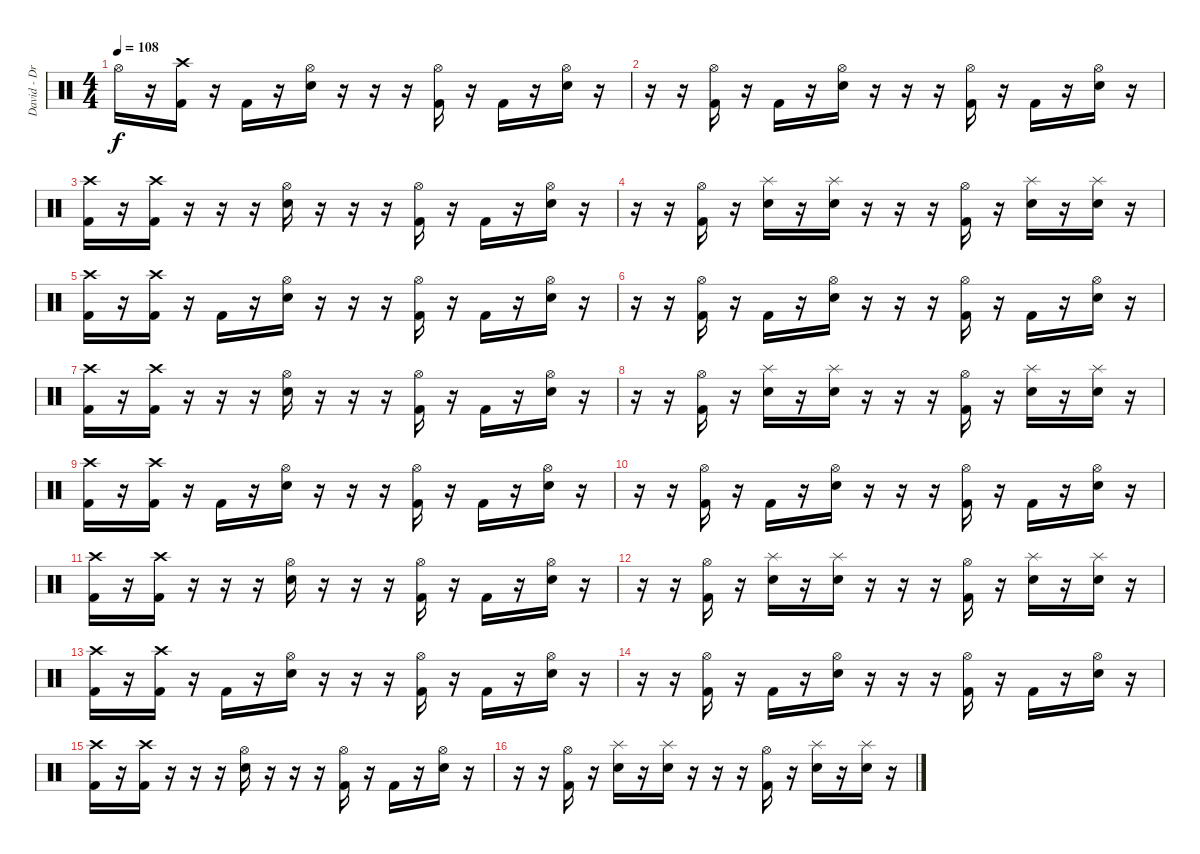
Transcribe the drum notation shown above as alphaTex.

\track ("David - Drums" "David - Dr") {instrument percussion}
\staff {score}
\articulation defaults
\ts (4 4)
\tempo 108
\clef neutral
\ks c "Hi-Hat (open)".16{dy f}
r.16 ("Crash high (hit)" "Kick (hit) 2").16 r.16 "Kick (hit) 2".16 r.16 ("Hi-Hat (open)" "Snare (hit) 2").16 r.16 r.16 r.16 ("Hi-Hat (open)" "Kick (hit) 2").16 r.16 "Kick (hit) 2".16 r.16 ("Hi-Hat (open)" "Snare (hit) 2").16 r.16 |
r.16 r.16 ("Hi-Hat (open)" "Kick (hit) 2").16 r.16 "Kick (hit) 2".16 r.16 ("Hi-Hat (open)" "Snare (hit) 2").16 r.16 r.16 r.16 ("Hi-Hat (open)" "Kick (hit) 2").16 r.16 "Kick (hit) 2".16 r.16 ("Hi-Hat (open)" "Snare (hit) 2").16 r.16 |
("Crash high (hit)" "Kick (hit) 2").16 r.16 ("Crash high (hit)" "Kick (hit) 2").16 r.16 r.16 r.16 ("Hi-Hat (open)" "Snare (hit) 2").16 r.16 r.16 r.16 ("Hi-Hat (open)" "Kick (hit) 2").16 r.16 "Kick (hit) 2".16 r.16 ("Hi-Hat (open)" "Snare (hit) 2").16 r.16 |
r.16 r.16 ("Hi-Hat (open)" "Kick (hit) 2").16 r.16 ("Splash (hit)" "Snare (hit) 2").16 r.16 ("Splash (hit)" "Snare (hit) 2").16 r.16 r.16 r.16 ("Hi-Hat (open)" "Kick (hit) 2").16 r.16 ("Splash (hit)" "Snare (hit) 2").16 r.16 ("Splash (hit)" "Snare (hit) 2").16 r.16 |
("Crash high (hit)" "Kick (hit) 2").16{volume 11} r.16 ("Crash high (hit)" "Kick (hit) 2").16 r.16 "Kick (hit) 2".16 r.16 ("Hi-Hat (open)" "Snare (hit) 2").16 r.16 r.16 r.16 ("Hi-Hat (open)" "Kick (hit) 2").16 r.16 "Kick (hit) 2".16 r.16 ("Hi-Hat (open)" "Snare (hit) 2").16 r.16 |
r.16{volume 10} r.16 ("Hi-Hat (open)" "Kick (hit) 2").16 r.16 "Kick (hit) 2".16 r.16 ("Hi-Hat (open)" "Snare (hit) 2").16 r.16 r.16 r.16 ("Hi-Hat (open)" "Kick (hit) 2").16 r.16 "Kick (hit) 2".16 r.16 ("Hi-Hat (open)" "Snare (hit) 2").16 r.16 |
("Crash high (hit)" "Kick (hit) 2").16{volume 9} r.16 ("Crash high (hit)" "Kick (hit) 2").16 r.16 r.16 r.16 ("Hi-Hat (open)" "Snare (hit) 2").16 r.16 r.16 r.16 ("Hi-Hat (open)" "Kick (hit) 2").16 r.16 "Kick (hit) 2".16 r.16 ("Hi-Hat (open)" "Snare (hit) 2").16 r.16 |
r.16{volume 8} r.16 ("Hi-Hat (open)" "Kick (hit) 2").16 r.16 ("Splash (hit)" "Snare (hit) 2").16 r.16 ("Splash (hit)" "Snare (hit) 2").16 r.16 r.16 r.16 ("Hi-Hat (open)" "Kick (hit) 2").16 r.16 ("Splash (hit)" "Snare (hit) 2").16 r.16 ("Splash (hit)" "Snare (hit) 2").16 r.16 |
("Crash high (hit)" "Kick (hit) 2").16{volume 7} r.16 ("Crash high (hit)" "Kick (hit) 2").16 r.16 "Kick (hit) 2".16 r.16 ("Hi-Hat (open)" "Snare (hit) 2").16 r.16 r.16 r.16 ("Hi-Hat (open)" "Kick (hit) 2").16 r.16 "Kick (hit) 2".16 r.16 ("Hi-Hat (open)" "Snare (hit) 2").16 r.16 |
r.16{volume 6} r.16 ("Hi-Hat (open)" "Kick (hit) 2").16 r.16 "Kick (hit) 2".16 r.16 ("Hi-Hat (open)" "Snare (hit) 2").16 r.16 r.16 r.16 ("Hi-Hat (open)" "Kick (hit) 2").16 r.16 "Kick (hit) 2".16 r.16 ("Hi-Hat (open)" "Snare (hit) 2").16 r.16 |
("Crash high (hit)" "Kick (hit) 2").16 r.16 ("Crash high (hit)" "Kick (hit) 2").16 r.16 r.16 r.16 ("Hi-Hat (open)" "Snare (hit) 2").16 r.16 r.16 r.16 ("Hi-Hat (open)" "Kick (hit) 2").16 r.16 "Kick (hit) 2".16 r.16 ("Hi-Hat (open)" "Snare (hit) 2").16 r.16 |
r.16 r.16 ("Hi-Hat (open)" "Kick (hit) 2").16 r.16 ("Splash (hit)" "Snare (hit) 2").16 r.16 ("Splash (hit)" "Snare (hit) 2").16 r.16 r.16 r.16 ("Hi-Hat (open)" "Kick (hit) 2").16 r.16 ("Splash (hit)" "Snare (hit) 2").16 r.16 ("Splash (hit)" "Snare (hit) 2").16 r.16 |
("Crash high (hit)" "Kick (hit) 2").16 r.16 ("Crash high (hit)" "Kick (hit) 2").16 r.16 "Kick (hit) 2".16 r.16 ("Hi-Hat (open)" "Snare (hit) 2").16 r.16 r.16 r.16 ("Hi-Hat (open)" "Kick (hit) 2").16 r.16 "Kick (hit) 2".16 r.16 ("Hi-Hat (open)" "Snare (hit) 2").16 r.16 |
r.16{volume 5} r.16 ("Hi-Hat (open)" "Kick (hit) 2").16 r.16 "Kick (hit) 2".16 r.16 ("Hi-Hat (open)" "Snare (hit) 2").16 r.16 r.16 r.16 ("Hi-Hat (open)" "Kick (hit) 2").16 r.16 "Kick (hit) 2".16 r.16 ("Hi-Hat (open)" "Snare (hit) 2").16 r.16 |
("Crash high (hit)" "Kick (hit) 2").16{volume 4} r.16 ("Crash high (hit)" "Kick (hit) 2").16 r.16 r.16 r.16 ("Hi-Hat (open)" "Snare (hit) 2").16 r.16 r.16 r.16 ("Hi-Hat (open)" "Kick (hit) 2").16 r.16 "Kick (hit) 2".16 r.16 ("Hi-Hat (open)" "Snare (hit) 2").16 r.16 |
r.16{volume 3} r.16 ("Hi-Hat (open)" "Kick (hit) 2").16 r.16 ("Splash (hit)" "Snare (hit) 2").16 r.16 ("Splash (hit)" "Snare (hit) 2").16 r.16 r.16 r.16 ("Hi-Hat (open)" "Kick (hit) 2").16 r.16 ("Splash (hit)" "Snare (hit) 2").16 r.16 ("Splash (hit)" "Snare (hit) 2").16 r.16
